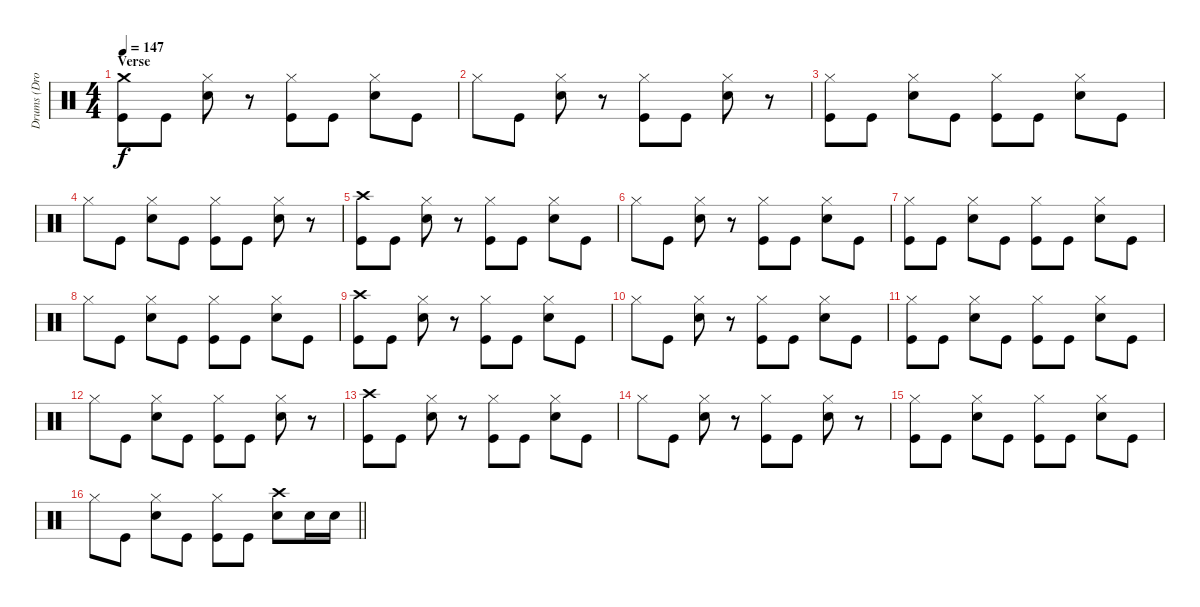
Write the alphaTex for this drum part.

\track ("Drums (Drover)" "Drums (Dro") {instrument percussion}
\staff {score}
\articulation defaults
\ts (4 4)
\section ("" "Verse")
\tempo 147
\clef neutral
\ks c
("Crash medium (hit)" "Kick (hit)").8{dy f} "Kick (hit)".8 ("Hi-Hat (closed)" "Snare (hit) 2").8 r.8 ("Hi-Hat (closed)" "Kick (hit)").8 "Kick (hit)".8 ("Hi-Hat (closed)" "Snare (hit) 2").8 "Kick (hit)".8 |
"Hi-Hat (closed)".8 "Kick (hit)".8 ("Hi-Hat (closed)" "Snare (hit) 2").8 r.8 ("Hi-Hat (closed)" "Kick (hit)").8 "Kick (hit)".8 ("Hi-Hat (closed)" "Snare (hit) 2").8 r.8 |
("Hi-Hat (closed)" "Kick (hit)").8 "Kick (hit)".8 ("Hi-Hat (closed)" "Snare (hit) 2").8 "Kick (hit)".8 ("Hi-Hat (closed)" "Kick (hit)").8 "Kick (hit)".8 ("Hi-Hat (closed)" "Snare (hit) 2").8 "Kick (hit)".8 |
"Hi-Hat (closed)".8 "Kick (hit)".8 ("Hi-Hat (closed)" "Snare (hit) 2").8 "Kick (hit)".8 ("Hi-Hat (closed)" "Kick (hit)").8 "Kick (hit)".8 ("Hi-Hat (closed)" "Snare (hit) 2").8 r.8 |
("Crash high (hit)" "Kick (hit)").8 "Kick (hit)".8 ("Hi-Hat (closed)" "Snare (hit) 2").8 r.8 ("Hi-Hat (closed)" "Kick (hit)").8 "Kick (hit)".8 ("Hi-Hat (closed)" "Snare (hit) 2").8 "Kick (hit)".8 |
"Hi-Hat (closed)".8 "Kick (hit)".8 ("Hi-Hat (closed)" "Snare (hit) 2").8 r.8 ("Hi-Hat (closed)" "Kick (hit)").8 "Kick (hit)".8 ("Hi-Hat (closed)" "Snare (hit) 2").8 "Kick (hit)".8 |
("Hi-Hat (closed)" "Kick (hit)").8 "Kick (hit)".8 ("Hi-Hat (closed)" "Snare (hit) 2").8 "Kick (hit)".8 ("Hi-Hat (closed)" "Kick (hit)").8 "Kick (hit)".8 ("Hi-Hat (closed)" "Snare (hit) 2").8 "Kick (hit)".8 |
"Hi-Hat (closed)".8 "Kick (hit)".8 ("Hi-Hat (closed)" "Snare (hit) 2").8 "Kick (hit)".8 ("Hi-Hat (closed)" "Kick (hit)").8 "Kick (hit)".8 ("Hi-Hat (closed)" "Snare (hit) 2").8 "Kick (hit)".8 |
("Crash high (hit)" "Kick (hit)").8 "Kick (hit)".8 ("Hi-Hat (closed)" "Snare (hit) 2").8 r.8 ("Hi-Hat (closed)" "Kick (hit)").8 "Kick (hit)".8 ("Hi-Hat (closed)" "Snare (hit) 2").8 "Kick (hit)".8 |
"Hi-Hat (closed)".8 "Kick (hit)".8 ("Hi-Hat (closed)" "Snare (hit) 2").8 r.8 ("Hi-Hat (closed)" "Kick (hit)").8 "Kick (hit)".8 ("Hi-Hat (closed)" "Snare (hit) 2").8 "Kick (hit)".8 |
("Hi-Hat (closed)" "Kick (hit)").8 "Kick (hit)".8 ("Hi-Hat (closed)" "Snare (hit) 2").8 "Kick (hit)".8 ("Hi-Hat (closed)" "Kick (hit)").8 "Kick (hit)".8 ("Hi-Hat (closed)" "Snare (hit) 2").8 "Kick (hit)".8 |
"Hi-Hat (closed)".8 "Kick (hit)".8 ("Hi-Hat (closed)" "Snare (hit) 2").8 "Kick (hit)".8 ("Hi-Hat (closed)" "Kick (hit)").8 "Kick (hit)".8 ("Hi-Hat (closed)" "Snare (hit) 2").8 r.8 |
("Crash high (hit)" "Kick (hit)").8 "Kick (hit)".8 ("Hi-Hat (closed)" "Snare (hit) 2").8 r.8 ("Hi-Hat (closed)" "Kick (hit)").8 "Kick (hit)".8 ("Hi-Hat (closed)" "Snare (hit) 2").8 "Kick (hit)".8 |
"Hi-Hat (closed)".8 "Kick (hit)".8 ("Hi-Hat (closed)" "Snare (hit) 2").8 r.8 ("Hi-Hat (closed)" "Kick (hit)").8 "Kick (hit)".8 ("Hi-Hat (closed)" "Snare (hit) 2").8 r.8 |
("Hi-Hat (closed)" "Kick (hit)").8 "Kick (hit)".8 ("Hi-Hat (closed)" "Snare (hit) 2").8 "Kick (hit)".8 ("Hi-Hat (closed)" "Kick (hit)").8 "Kick (hit)".8 ("Hi-Hat (closed)" "Snare (hit) 2").8 "Kick (hit)".8 |
\barLineRight lightlight "Hi-Hat (closed)".8 "Kick (hit)".8
("Hi-Hat (closed)" "Snare (hit) 2").8 "Kick (hit)".8 ("Hi-Hat (closed)" "Kick (hit)").8 "Kick (hit)".8 ("Crash high (hit)" "Snare (hit) 2").8 "Snare (hit) 2".16 "Snare (hit) 2".16
